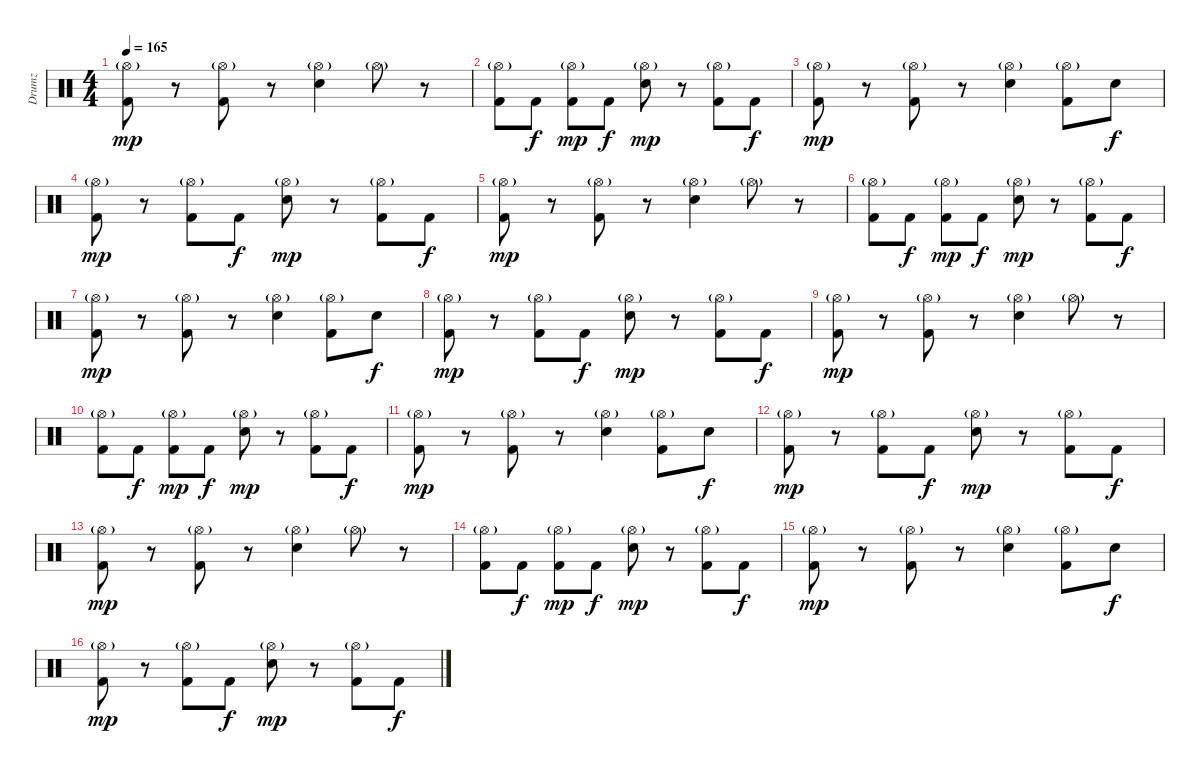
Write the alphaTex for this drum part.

\track ("Drumz" "Drumz") {instrument percussion}
\staff {score}
\articulation defaults
\ts (4 4)
\tempo 165
\clef neutral
\ks c
("Hi-Hat (open)"{g} "Kick (hit) 2").8{dy mp} r.8 ("Hi-Hat (open)"{g} "Kick (hit) 2").8 r.8 ("Hi-Hat (open)"{g} "Snare (hit) 2").4 "Hi-Hat (open)"{g}.8 r.8 |
("Hi-Hat (open)"{g} "Kick (hit) 2").8 "Kick (hit) 2".8{dy f} ("Hi-Hat (open)"{g} "Kick (hit) 2").8{dy mp} "Kick (hit) 2".8{dy f} ("Hi-Hat (open)"{g} "Snare (hit) 2").8{dy mp} r.8 ("Kick (hit) 2" "Hi-Hat (open)"{g}).8 "Kick (hit) 2".8{dy f} |
("Hi-Hat (open)"{g} "Kick (hit) 2").8{dy mp} r.8 ("Hi-Hat (open)"{g} "Kick (hit) 2").8 r.8 ("Hi-Hat (open)"{g} "Snare (hit) 2").4 ("Hi-Hat (open)"{g} "Kick (hit) 2").8 "Snare (hit) 2".8{dy f} |
("Hi-Hat (open)"{g} "Kick (hit) 2").8{dy mp} r.8 ("Hi-Hat (open)"{g} "Kick (hit) 2").8 "Kick (hit) 2".8{dy f} ("Hi-Hat (open)"{g} "Snare (hit) 2").8{dy mp} r.8 ("Hi-Hat (open)"{g} "Kick (hit) 2").8 "Kick (hit) 2".8{dy f} |
("Hi-Hat (open)"{g} "Kick (hit) 2").8{dy mp} r.8 ("Hi-Hat (open)"{g} "Kick (hit) 2").8 r.8 ("Hi-Hat (open)"{g} "Snare (hit) 2").4 "Hi-Hat (open)"{g}.8 r.8 |
("Hi-Hat (open)"{g} "Kick (hit) 2").8 "Kick (hit) 2".8{dy f} ("Hi-Hat (open)"{g} "Kick (hit) 2").8{dy mp} "Kick (hit) 2".8{dy f} ("Hi-Hat (open)"{g} "Snare (hit) 2").8{dy mp} r.8 ("Kick (hit) 2" "Hi-Hat (open)"{g}).8 "Kick (hit) 2".8{dy f} |
("Hi-Hat (open)"{g} "Kick (hit) 2").8{dy mp} r.8 ("Hi-Hat (open)"{g} "Kick (hit) 2").8 r.8 ("Hi-Hat (open)"{g} "Snare (hit) 2").4 ("Hi-Hat (open)"{g} "Kick (hit) 2").8 "Snare (hit) 2".8{dy f} |
("Hi-Hat (open)"{g} "Kick (hit) 2").8{dy mp} r.8 ("Hi-Hat (open)"{g} "Kick (hit) 2").8 "Kick (hit) 2".8{dy f} ("Hi-Hat (open)"{g} "Snare (hit) 2").8{dy mp} r.8 ("Hi-Hat (open)"{g} "Kick (hit) 2").8 "Kick (hit) 2".8{dy f} |
("Hi-Hat (open)"{g} "Kick (hit) 2").8{dy mp} r.8 ("Hi-Hat (open)"{g} "Kick (hit) 2").8 r.8 ("Hi-Hat (open)"{g} "Snare (hit) 2").4 "Hi-Hat (open)"{g}.8 r.8 |
("Hi-Hat (open)"{g} "Kick (hit) 2").8 "Kick (hit) 2".8{dy f} ("Hi-Hat (open)"{g} "Kick (hit) 2").8{dy mp} "Kick (hit) 2".8{dy f} ("Hi-Hat (open)"{g} "Snare (hit) 2").8{dy mp} r.8 ("Kick (hit) 2" "Hi-Hat (open)"{g}).8 "Kick (hit) 2".8{dy f} |
("Hi-Hat (open)"{g} "Kick (hit) 2").8{dy mp} r.8 ("Hi-Hat (open)"{g} "Kick (hit) 2").8 r.8 ("Hi-Hat (open)"{g} "Snare (hit) 2").4 ("Hi-Hat (open)"{g} "Kick (hit) 2").8 "Snare (hit) 2".8{dy f} |
("Hi-Hat (open)"{g} "Kick (hit) 2").8{dy mp} r.8 ("Hi-Hat (open)"{g} "Kick (hit) 2").8 "Kick (hit) 2".8{dy f} ("Hi-Hat (open)"{g} "Snare (hit) 2").8{dy mp} r.8 ("Hi-Hat (open)"{g} "Kick (hit) 2").8 "Kick (hit) 2".8{dy f} |
("Hi-Hat (open)"{g} "Kick (hit) 2").8{dy mp} r.8 ("Hi-Hat (open)"{g} "Kick (hit) 2").8 r.8 ("Hi-Hat (open)"{g} "Snare (hit) 2").4 "Hi-Hat (open)"{g}.8 r.8 |
("Hi-Hat (open)"{g} "Kick (hit) 2").8 "Kick (hit) 2".8{dy f} ("Hi-Hat (open)"{g} "Kick (hit) 2").8{dy mp} "Kick (hit) 2".8{dy f} ("Hi-Hat (open)"{g} "Snare (hit) 2").8{dy mp} r.8 ("Kick (hit) 2" "Hi-Hat (open)"{g}).8 "Kick (hit) 2".8{dy f} |
("Hi-Hat (open)"{g} "Kick (hit) 2").8{dy mp} r.8 ("Hi-Hat (open)"{g} "Kick (hit) 2").8 r.8 ("Hi-Hat (open)"{g} "Snare (hit) 2").4 ("Hi-Hat (open)"{g} "Kick (hit) 2").8 "Snare (hit) 2".8{dy f} |
("Hi-Hat (open)"{g} "Kick (hit) 2").8{dy mp} r.8 ("Hi-Hat (open)"{g} "Kick (hit) 2").8 "Kick (hit) 2".8{dy f} ("Hi-Hat (open)"{g} "Snare (hit) 2").8{dy mp} r.8 ("Hi-Hat (open)"{g} "Kick (hit) 2").8 "Kick (hit) 2".8{dy f}
